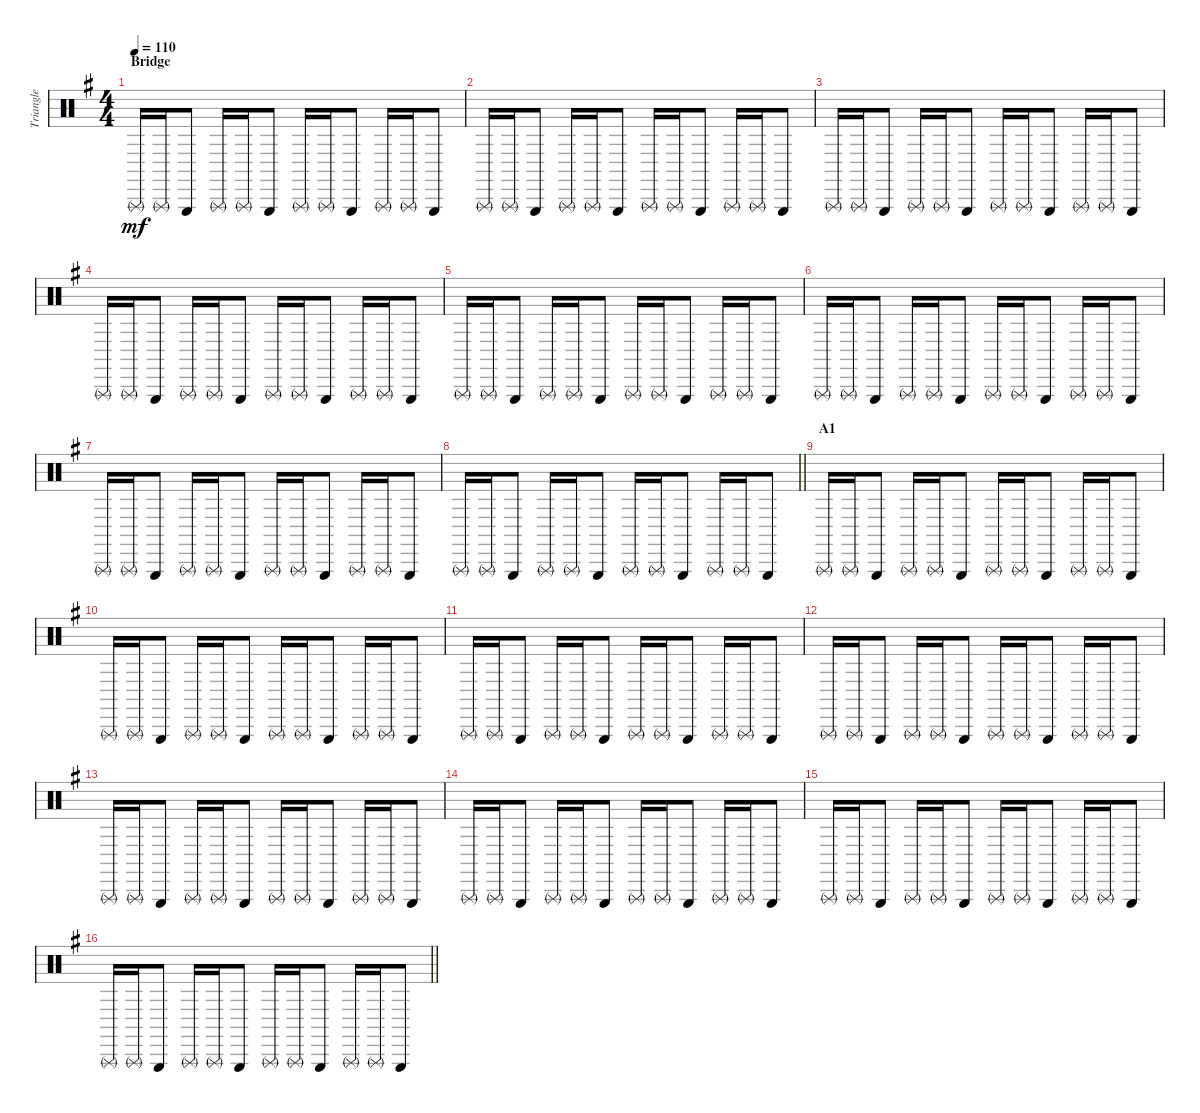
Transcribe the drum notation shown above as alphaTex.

\track ("Triangle" "Triangle") {instrument percussion}
\staff {score}
\articulation defaults
\ts (4 4)
\section ("" "Bridge")
\tempo 110
\clef neutral
\ks g "Triangle (rnute)".16{dy mf} "Triangle (rnute)".16 "Triangle (hit)".8 "Triangle (rnute)".16 "Triangle (rnute)".16 "Triangle (hit)".8 "Triangle (rnute)".16 "Triangle (rnute)".16 "Triangle (hit)".8 "Triangle (rnute)".16 "Triangle (rnute)".16 "Triangle (hit)".8
|
"Triangle (rnute)".16 "Triangle (rnute)".16 "Triangle (hit)".8 "Triangle (rnute)".16 "Triangle (rnute)".16 "Triangle (hit)".8 "Triangle (rnute)".16 "Triangle (rnute)".16 "Triangle (hit)".8 "Triangle (rnute)".16 "Triangle (rnute)".16 "Triangle (hit)".8 |
"Triangle (rnute)".16 "Triangle (rnute)".16 "Triangle (hit)".8 "Triangle (rnute)".16 "Triangle (rnute)".16 "Triangle (hit)".8 "Triangle (rnute)".16 "Triangle (rnute)".16 "Triangle (hit)".8 "Triangle (rnute)".16 "Triangle (rnute)".16 "Triangle (hit)".8 |
"Triangle (rnute)".16 "Triangle (rnute)".16 "Triangle (hit)".8 "Triangle (rnute)".16 "Triangle (rnute)".16 "Triangle (hit)".8 "Triangle (rnute)".16 "Triangle (rnute)".16 "Triangle (hit)".8 "Triangle (rnute)".16 "Triangle (rnute)".16 "Triangle (hit)".8 |
"Triangle (rnute)".16 "Triangle (rnute)".16 "Triangle (hit)".8 "Triangle (rnute)".16 "Triangle (rnute)".16 "Triangle (hit)".8 "Triangle (rnute)".16 "Triangle (rnute)".16 "Triangle (hit)".8 "Triangle (rnute)".16 "Triangle (rnute)".16 "Triangle (hit)".8 |
"Triangle (rnute)".16 "Triangle (rnute)".16 "Triangle (hit)".8 "Triangle (rnute)".16 "Triangle (rnute)".16 "Triangle (hit)".8 "Triangle (rnute)".16 "Triangle (rnute)".16 "Triangle (hit)".8 "Triangle (rnute)".16 "Triangle (rnute)".16 "Triangle (hit)".8 |
"Triangle (rnute)".16 "Triangle (rnute)".16 "Triangle (hit)".8 "Triangle (rnute)".16 "Triangle (rnute)".16 "Triangle (hit)".8 "Triangle (rnute)".16 "Triangle (rnute)".16 "Triangle (hit)".8 "Triangle (rnute)".16 "Triangle (rnute)".16 "Triangle (hit)".8 |
\barLineRight lightlight "Triangle (rnute)".16 "Triangle (rnute)".16 "Triangle (hit)".8 "Triangle (rnute)".16 "Triangle (rnute)".16 "Triangle (hit)".8 "Triangle (rnute)".16 "Triangle (rnute)".16 "Triangle (hit)".8 "Triangle (rnute)".16 "Triangle (rnute)".16 "Triangle (hit)".8
|
\section ("" "A1")
"Triangle (rnute)".16 "Triangle (rnute)".16 "Triangle (hit)".8 "Triangle (rnute)".16 "Triangle (rnute)".16 "Triangle (hit)".8 "Triangle (rnute)".16 "Triangle (rnute)".16 "Triangle (hit)".8 "Triangle (rnute)".16 "Triangle (rnute)".16 "Triangle (hit)".8 |
"Triangle (rnute)".16 "Triangle (rnute)".16 "Triangle (hit)".8 "Triangle (rnute)".16 "Triangle (rnute)".16 "Triangle (hit)".8 "Triangle (rnute)".16 "Triangle (rnute)".16 "Triangle (hit)".8 "Triangle (rnute)".16 "Triangle (rnute)".16 "Triangle (hit)".8 |
"Triangle (rnute)".16 "Triangle (rnute)".16 "Triangle (hit)".8 "Triangle (rnute)".16 "Triangle (rnute)".16 "Triangle (hit)".8 "Triangle (rnute)".16 "Triangle (rnute)".16 "Triangle (hit)".8 "Triangle (rnute)".16 "Triangle (rnute)".16 "Triangle (hit)".8 |
"Triangle (rnute)".16 "Triangle (rnute)".16 "Triangle (hit)".8 "Triangle (rnute)".16 "Triangle (rnute)".16 "Triangle (hit)".8 "Triangle (rnute)".16 "Triangle (rnute)".16 "Triangle (hit)".8 "Triangle (rnute)".16 "Triangle (rnute)".16 "Triangle (hit)".8 |
"Triangle (rnute)".16 "Triangle (rnute)".16 "Triangle (hit)".8 "Triangle (rnute)".16 "Triangle (rnute)".16 "Triangle (hit)".8 "Triangle (rnute)".16 "Triangle (rnute)".16 "Triangle (hit)".8 "Triangle (rnute)".16 "Triangle (rnute)".16 "Triangle (hit)".8 |
"Triangle (rnute)".16 "Triangle (rnute)".16 "Triangle (hit)".8 "Triangle (rnute)".16 "Triangle (rnute)".16 "Triangle (hit)".8 "Triangle (rnute)".16 "Triangle (rnute)".16 "Triangle (hit)".8 "Triangle (rnute)".16 "Triangle (rnute)".16 "Triangle (hit)".8 |
"Triangle (rnute)".16 "Triangle (rnute)".16 "Triangle (hit)".8 "Triangle (rnute)".16 "Triangle (rnute)".16 "Triangle (hit)".8 "Triangle (rnute)".16 "Triangle (rnute)".16 "Triangle (hit)".8 "Triangle (rnute)".16 "Triangle (rnute)".16 "Triangle (hit)".8 |
\barLineRight lightlight "Triangle (rnute)".16 "Triangle (rnute)".16 "Triangle (hit)".8 "Triangle (rnute)".16 "Triangle (rnute)".16 "Triangle (hit)".8 "Triangle (rnute)".16 "Triangle (rnute)".16 "Triangle (hit)".8 "Triangle (rnute)".16 "Triangle (rnute)".16 "Triangle (hit)".8
